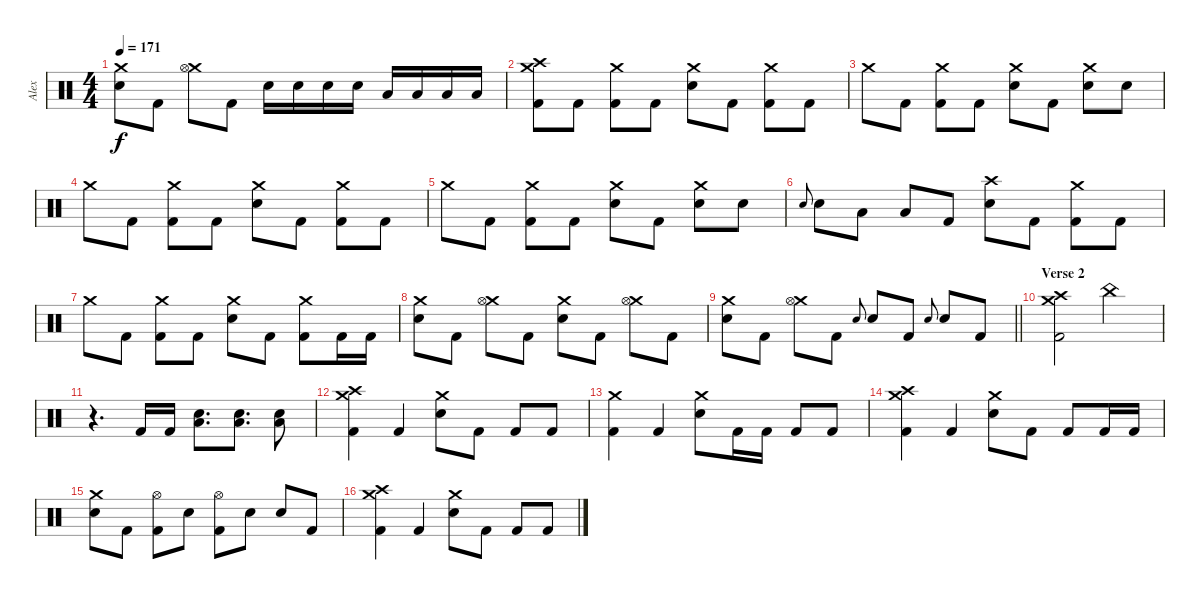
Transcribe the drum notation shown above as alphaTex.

\track ("Alex" "Alex") {instrument percussion}
\staff
\articulation defaults
\ts (4 4)
\tempo 171
\clef neutral
\ks c
("Crash medium (hit)" "Electric Snare (hit)").8{dy f} "Kick (hit) 2".8 ("Crash medium (hit)" "Hi-Hat (open)").8 "Kick (hit) 2".8 "Electric Snare (hit)".16 "Electric Snare (hit)".16 "Electric Snare (hit)".16 "Electric Snare (hit)".16 "Low Tom (hit)".16 "Low Tom (hit)".16 "Low Floor Tom (hit)".16 "Low Floor Tom (hit)".16 |
("Crash medium (hit)" "Crash high (hit)" "Kick (hit) 2").8 "Kick (hit) 2".8 ("Crash medium (hit)" "Kick (hit) 2").8 "Kick (hit) 2".8 ("Crash medium (hit)" "Electric Snare (hit)").8 "Kick (hit) 2".8 ("Crash medium (hit)" "Kick (hit) 2").8 "Kick (hit) 2".8 |
"Crash medium (hit)".8 "Kick (hit) 2".8 ("Crash medium (hit)" "Kick (hit) 2").8 "Kick (hit) 2".8 ("Crash medium (hit)" "Electric Snare (hit)").8 "Kick (hit) 2".8 ("Crash medium (hit)" "Electric Snare (hit)").8 "Electric Snare (hit)".8 |
"Crash medium (hit)".8 "Kick (hit) 2".8 ("Crash medium (hit)" "Kick (hit) 2").8 "Kick (hit) 2".8 ("Crash medium (hit)" "Electric Snare (hit)").8 "Kick (hit) 2".8 ("Crash medium (hit)" "Kick (hit) 2").8 "Kick (hit) 2".8 |
"Crash medium (hit)".8 "Kick (hit) 2".8 ("Crash medium (hit)" "Kick (hit) 2").8 "Kick (hit) 2".8 ("Crash medium (hit)" "Electric Snare (hit)").8 "Kick (hit) 2".8 ("Crash medium (hit)" "Electric Snare (hit)").8 "Electric Snare (hit)".8 |
"Electric Snare (hit)".8{gr onbeat} "Electric Snare (hit)".8 "Low Tom (hit)".8 "Low Floor Tom (hit)".8 "Kick (hit) 2".8 ("Crash high (hit)" "Electric Snare (hit)").8 "Kick (hit) 2".8 ("Crash medium (hit)" "Kick (hit) 2").8 "Kick (hit) 2".8 |
"Crash medium (hit)".8 "Kick (hit) 2".8 ("Crash medium (hit)" "Kick (hit) 2").8 "Kick (hit) 2".8 ("Crash medium (hit)" "Electric Snare (hit)").8 "Kick (hit) 2".8 ("Crash medium (hit)" "Kick (hit) 2").8 "Kick (hit) 2".16 "Kick (hit) 2".16 |
("Crash medium (hit)" "Electric Snare (hit)").8 "Kick (hit) 2".8 ("Crash medium (hit)" "Hi-Hat (open)").8 "Kick (hit) 2".8 ("Crash medium (hit)" "Electric Snare (hit)").8 "Kick (hit) 2".8 ("Crash medium (hit)" "Hi-Hat (open)").8 "Kick (hit) 2".8 |
\barLineRight lightlight
("Crash medium (hit)" "Electric Snare (hit)").8 "Kick (hit) 2".8 ("Crash medium (hit)" "Hi-Hat (open)").8 "Kick (hit) 2".8 "Electric Snare (hit)".8{gr onbeat} "Electric Snare (hit)".8 "Kick (hit) 2".8 "Electric Snare (hit)".8{gr onbeat} "Electric Snare (hit)".8 "Kick (hit) 2".8 |
\section ("" "Verse 2")
("Crash medium (hit)" "Crash high (hit)" "Kick (hit) 2").2 "China (hit)".2 |
r.4{d} "Kick (hit) 2".16 "Kick (hit) 2".16 ("Electric Snare (hit)" "Low Floor Tom (hit)").8{d} ("Electric Snare (hit)" "Low Floor Tom (hit)").8{d} ("Electric Snare (hit)" "Low Floor Tom (hit)").8 |
("Crash medium (hit)" "Crash high (hit)" "Kick (hit) 2").4 "Kick (hit) 2".4 ("Crash medium (hit)" "Electric Snare (hit)").8 "Kick (hit) 2".8 "Kick (hit) 2".8 "Kick (hit) 2".8 |
("Crash medium (hit)" "Kick (hit) 2").4 "Kick (hit) 2".4 ("Crash medium (hit)" "Electric Snare (hit)").8 "Kick (hit) 2".16 "Kick (hit) 2".16 "Kick (hit) 2".8 "Kick (hit) 2".8 |
("Crash medium (hit)" "Crash high (hit)" "Kick (hit) 2").4 "Kick (hit) 2".4 ("Crash medium (hit)" "Electric Snare (hit)").8 "Kick (hit) 2".8 "Kick (hit) 2".8 "Kick (hit) 2".16 "Kick (hit) 2".16 |
("Crash medium (hit)" "Electric Snare (hit)").8 "Kick (hit) 2".8 ("Hi-Hat (open)" "Kick (hit) 2").8 "Electric Snare (hit)".8 ("Hi-Hat (open)" "Kick (hit) 2").8 "Electric Snare (hit)".8 "Electric Snare (hit)".8 "Kick (hit) 2".8 |
("Crash medium (hit)" "Crash high (hit)" "Kick (hit) 2").4 "Kick (hit) 2".4 ("Crash medium (hit)" "Electric Snare (hit)").8 "Kick (hit) 2".8 "Kick (hit) 2".8 "Kick (hit) 2".8
